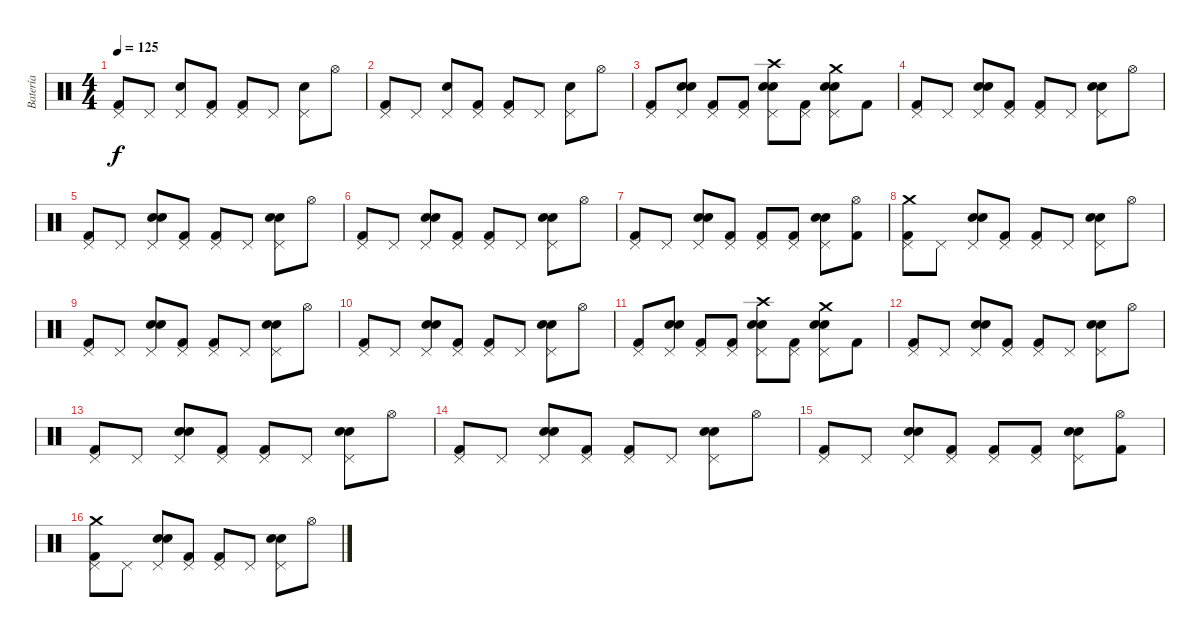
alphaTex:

\track ("Batería" "Batería") {instrument percussion}
\staff {score}
\articulation defaults
\ts (4 4)
\tempo 125
\clef neutral
\ks c
("Kick (hit) 2" "Pedal Hi-Hat (hit)").8{dy f} "Pedal Hi-Hat (hit)".8 ("Electric Snare (hit)" "Pedal Hi-Hat (hit)").8 ("Kick (hit) 2" "Pedal Hi-Hat (hit)").8 ("Kick (hit) 2" "Pedal Hi-Hat (hit)").8 "Pedal Hi-Hat (hit)".8 ("Electric Snare (hit)" "Pedal Hi-Hat (hit)").8 "Hi-Hat (open)".8 |
("Kick (hit) 2" "Pedal Hi-Hat (hit)").8 "Pedal Hi-Hat (hit)".8 ("Electric Snare (hit)" "Pedal Hi-Hat (hit)").8 ("Kick (hit) 2" "Pedal Hi-Hat (hit)").8 ("Kick (hit) 2" "Pedal Hi-Hat (hit)").8 "Pedal Hi-Hat (hit)".8 ("Electric Snare (hit)" "Pedal Hi-Hat (hit)").8 "Hi-Hat (open)".8 |
("Kick (hit) 2" "Pedal Hi-Hat (hit)").8 ("Electric Snare (hit)" "Pedal Hi-Hat (hit)" "Snare (hit) 2").8 ("Kick (hit) 2" "Pedal Hi-Hat (hit)").8 ("Kick (hit) 2" "Pedal Hi-Hat (hit)").8 ("Electric Snare (hit)" "Pedal Hi-Hat (hit)" "Snare (hit) 2" "Crash high (hit)").8 ("Kick (hit) 2" "Pedal Hi-Hat (hit)").8 ("Electric Snare (hit)" "Pedal Hi-Hat (hit)" "Snare (hit) 2" "Crash medium (hit)").8 "Kick (hit) 2".8 |
("Kick (hit) 2" "Pedal Hi-Hat (hit)").8 "Pedal Hi-Hat (hit)".8 ("Electric Snare (hit)" "Pedal Hi-Hat (hit)" "Snare (hit) 2").8 ("Kick (hit) 2" "Pedal Hi-Hat (hit)").8 ("Kick (hit) 2" "Pedal Hi-Hat (hit)").8 "Pedal Hi-Hat (hit)".8 ("Electric Snare (hit)" "Pedal Hi-Hat (hit)" "Snare (hit) 2").8 "Hi-Hat (open)".8 |
("Kick (hit) 2" "Pedal Hi-Hat (hit)").8 "Pedal Hi-Hat (hit)".8 ("Electric Snare (hit)" "Pedal Hi-Hat (hit)" "Snare (hit) 2").8 ("Kick (hit) 2" "Pedal Hi-Hat (hit)").8 ("Kick (hit) 2" "Pedal Hi-Hat (hit)").8 "Pedal Hi-Hat (hit)".8 ("Electric Snare (hit)" "Pedal Hi-Hat (hit)" "Snare (hit) 2").8 "Hi-Hat (open)".8 |
("Kick (hit) 2" "Pedal Hi-Hat (hit)").8 "Pedal Hi-Hat (hit)".8 ("Electric Snare (hit)" "Pedal Hi-Hat (hit)" "Snare (hit) 2").8 ("Kick (hit) 2" "Pedal Hi-Hat (hit)").8 ("Kick (hit) 2" "Pedal Hi-Hat (hit)").8 "Pedal Hi-Hat (hit)".8 ("Electric Snare (hit)" "Pedal Hi-Hat (hit)" "Snare (hit) 2").8 "Hi-Hat (open)".8 |
("Kick (hit) 2" "Pedal Hi-Hat (hit)").8 "Pedal Hi-Hat (hit)".8 ("Electric Snare (hit)" "Pedal Hi-Hat (hit)" "Snare (hit) 2").8 ("Kick (hit) 2" "Pedal Hi-Hat (hit)").8 ("Kick (hit) 2" "Pedal Hi-Hat (hit)").8 ("Kick (hit) 2" "Pedal Hi-Hat (hit)").8 ("Electric Snare (hit)" "Pedal Hi-Hat (hit)" "Snare (hit) 2").8 ("Kick (hit) 2" "Hi-Hat (open)").8 |
("Kick (hit) 2" "Pedal Hi-Hat (hit)" "Crash medium (hit)").8 "Pedal Hi-Hat (hit)".8 ("Electric Snare (hit)" "Pedal Hi-Hat (hit)" "Snare (hit) 2").8 ("Kick (hit) 2" "Pedal Hi-Hat (hit)").8 ("Kick (hit) 2" "Pedal Hi-Hat (hit)").8 "Pedal Hi-Hat (hit)".8 ("Electric Snare (hit)" "Pedal Hi-Hat (hit)" "Snare (hit) 2").8 "Hi-Hat (open)".8 |
("Kick (hit) 2" "Pedal Hi-Hat (hit)").8 "Pedal Hi-Hat (hit)".8 ("Electric Snare (hit)" "Pedal Hi-Hat (hit)" "Snare (hit) 2").8 ("Kick (hit) 2" "Pedal Hi-Hat (hit)").8 ("Kick (hit) 2" "Pedal Hi-Hat (hit)").8 "Pedal Hi-Hat (hit)".8 ("Electric Snare (hit)" "Pedal Hi-Hat (hit)" "Snare (hit) 2").8 "Hi-Hat (open)".8 |
("Kick (hit) 2" "Pedal Hi-Hat (hit)").8 "Pedal Hi-Hat (hit)".8 ("Electric Snare (hit)" "Pedal Hi-Hat (hit)" "Snare (hit) 2").8 ("Kick (hit) 2" "Pedal Hi-Hat (hit)").8 ("Kick (hit) 2" "Pedal Hi-Hat (hit)").8 "Pedal Hi-Hat (hit)".8 ("Electric Snare (hit)" "Pedal Hi-Hat (hit)" "Snare (hit) 2").8 "Hi-Hat (open)".8 |
("Kick (hit) 2" "Pedal Hi-Hat (hit)").8 ("Electric Snare (hit)" "Pedal Hi-Hat (hit)" "Snare (hit) 2").8 ("Kick (hit) 2" "Pedal Hi-Hat (hit)").8 ("Kick (hit) 2" "Pedal Hi-Hat (hit)").8 ("Electric Snare (hit)" "Pedal Hi-Hat (hit)" "Snare (hit) 2" "Crash high (hit)").8 ("Kick (hit) 2" "Pedal Hi-Hat (hit)").8 ("Electric Snare (hit)" "Pedal Hi-Hat (hit)" "Snare (hit) 2" "Crash medium (hit)").8 "Kick (hit) 2".8 |
("Kick (hit) 2" "Pedal Hi-Hat (hit)").8 "Pedal Hi-Hat (hit)".8 ("Electric Snare (hit)" "Pedal Hi-Hat (hit)" "Snare (hit) 2").8 ("Kick (hit) 2" "Pedal Hi-Hat (hit)").8 ("Kick (hit) 2" "Pedal Hi-Hat (hit)").8 "Pedal Hi-Hat (hit)".8 ("Electric Snare (hit)" "Pedal Hi-Hat (hit)" "Snare (hit) 2").8 "Hi-Hat (open)".8 |
("Kick (hit) 2" "Pedal Hi-Hat (hit)").8 "Pedal Hi-Hat (hit)".8 ("Electric Snare (hit)" "Pedal Hi-Hat (hit)" "Snare (hit) 2").8 ("Kick (hit) 2" "Pedal Hi-Hat (hit)").8 ("Kick (hit) 2" "Pedal Hi-Hat (hit)").8 "Pedal Hi-Hat (hit)".8 ("Electric Snare (hit)" "Pedal Hi-Hat (hit)" "Snare (hit) 2").8 "Hi-Hat (open)".8 |
("Kick (hit) 2" "Pedal Hi-Hat (hit)").8 "Pedal Hi-Hat (hit)".8 ("Electric Snare (hit)" "Pedal Hi-Hat (hit)" "Snare (hit) 2").8 ("Kick (hit) 2" "Pedal Hi-Hat (hit)").8 ("Kick (hit) 2" "Pedal Hi-Hat (hit)").8 "Pedal Hi-Hat (hit)".8 ("Electric Snare (hit)" "Pedal Hi-Hat (hit)" "Snare (hit) 2").8 "Hi-Hat (open)".8 |
("Kick (hit) 2" "Pedal Hi-Hat (hit)").8 "Pedal Hi-Hat (hit)".8 ("Electric Snare (hit)" "Pedal Hi-Hat (hit)" "Snare (hit) 2").8 ("Kick (hit) 2" "Pedal Hi-Hat (hit)").8 ("Kick (hit) 2" "Pedal Hi-Hat (hit)").8 ("Kick (hit) 2" "Pedal Hi-Hat (hit)").8 ("Electric Snare (hit)" "Pedal Hi-Hat (hit)" "Snare (hit) 2").8 ("Kick (hit) 2" "Hi-Hat (open)").8 |
("Kick (hit) 2" "Pedal Hi-Hat (hit)" "Crash medium (hit)").8 "Pedal Hi-Hat (hit)".8 ("Electric Snare (hit)" "Pedal Hi-Hat (hit)" "Snare (hit) 2").8 ("Kick (hit) 2" "Pedal Hi-Hat (hit)").8 ("Kick (hit) 2" "Pedal Hi-Hat (hit)").8 "Pedal Hi-Hat (hit)".8 ("Electric Snare (hit)" "Pedal Hi-Hat (hit)" "Snare (hit) 2").8 "Hi-Hat (open)".8
